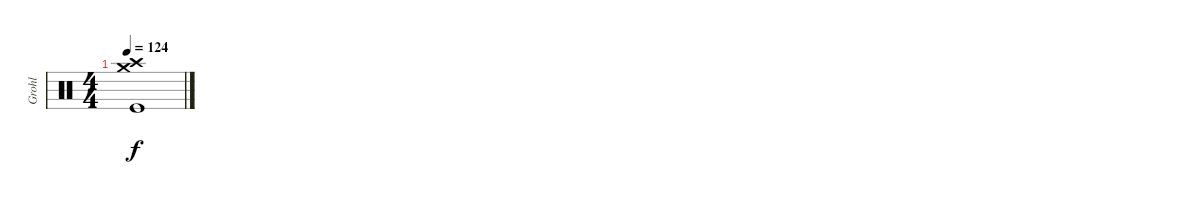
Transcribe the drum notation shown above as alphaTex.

\track ("Grohl" "Grohl") {instrument percussion}
\staff {score}
\articulation defaults
\ts (4 4)
\tempo 124
\clef neutral
\ks c
("Crash high (hit)" "Crash medium (hit)" "Kick (hit)").1{dy f}
